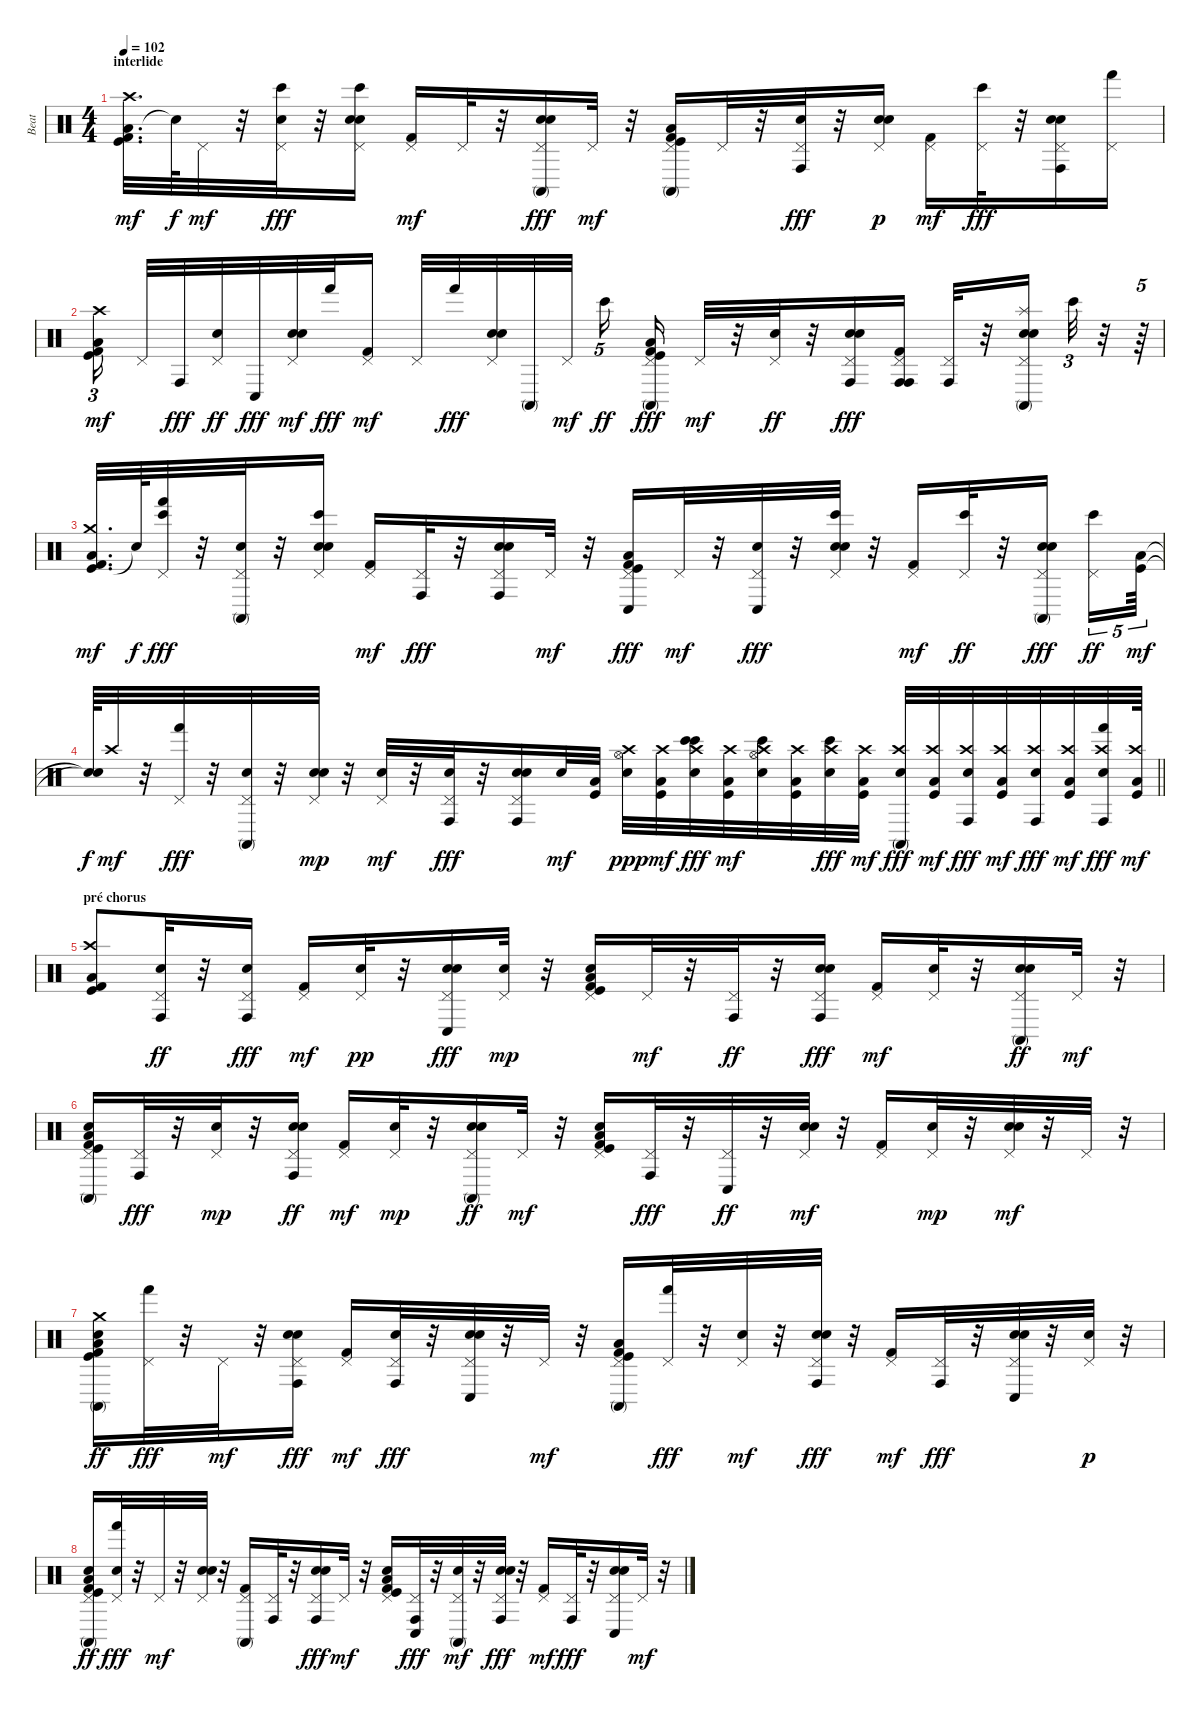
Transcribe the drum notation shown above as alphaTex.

\track ("Beat" "Beat") {instrument percussion}
\staff {score}
\articulation defaults
\ts (4 4)
\section ("" "interlide")
\tempo 102
\clef neutral
\ks c
("Low Tom (hit)" "Kick (hit)" "Kick (hit) 2" "Crash high (hit)").32{d dy mf volume 12} "Snare (hit)"{t}.64{dy f} "Pedal Hi-Hat (hit)".32{dy mf} r.32 ("Pedal Hi-Hat (hit)" "Hand Clap (hit)" "Bongo High (hit)").32{dy fff} r.32 ("Electric Snare (hit)" "Pedal Hi-Hat (hit)" "Hand Clap (hit)" "Bongo High (hit)").16 ("Kick (hit) 2" "Pedal Hi-Hat (hit)").16{dy mf} "Pedal Hi-Hat (hit)".32 r.32 ("Electric Snare (hit)" "Pedal Hi-Hat (hit)" "Hand Clap (hit)" "Conga high (mute)").16{dy fff} "Pedal Hi-Hat (hit)".32{dy mf} r.32 ("Low Tom (hit)" "Kick (hit)" "Kick (hit) 2" "Pedal Hi-Hat (hit)" "Conga high (mute)").16 "Pedal Hi-Hat (hit)".32 r.32 ("Pedal Hi-Hat (hit)" "Hand Clap (hit)" "Conga high (hit)").32{dy fff} r.32 ("Electric Snare (hit)" "Pedal Hi-Hat (hit)" "Hand Clap (hit)").16{dy p} ("Kick (hit) 2" "Pedal Hi-Hat (hit)").16{dy mf} ("Pedal Hi-Hat (hit)" "Bongo High (hit)").32{dy fff} r.32 ("Electric Snare (hit)" "Pedal Hi-Hat (hit)" "Hand Clap (hit)" "Conga high (hit)").16 ("Pedal Hi-Hat (hit)" "Hand (hit)").16 |
("Kick (hit)" "Low Tom (hit)" "Kick (hit) 2" "Crash high (hit)").16{tu (3 2) dy mf beam splitsecondary} "Pedal Hi-Hat (hit)".32 "Conga high (hit)".32{dy fff} ("Pedal Hi-Hat (hit)" "Hand Clap (hit)").32{dy ff} "Conga low (hit)".32{dy fff} ("Electric Snare (hit)" "Pedal Hi-Hat (hit)" "Hand Clap (hit)").32{dy mf} "Hand (hit)".32{dy fff} ("Kick (hit) 2" "Pedal Hi-Hat (hit)").16{dy mf} "Pedal Hi-Hat (hit)".32 "Hand (hit)".32{dy fff} ("Electric Snare (hit)" "Pedal Hi-Hat (hit)" "Hand Clap (hit)").32 "Conga high (mute)".32 "Pedal Hi-Hat (hit)".32{dy mf beam splitsecondary} "Bongo High (hit)".16{tu (5 4) dy ff} ("Low Tom (hit)" "Kick (hit)" "Kick (hit) 2" "Pedal Hi-Hat (hit)" "Conga high (mute)").16{dy fff} "Pedal Hi-Hat (hit)".32{dy mf} r.32 ("Pedal Hi-Hat (hit)" "Hand Clap (hit)").32{dy ff} r.32 ("Electric Snare (hit)" "Pedal Hi-Hat (hit)" "Hand Clap (hit)" "Conga high (hit)").16{dy fff} ("Kick (hit) 2" "Pedal Hi-Hat (hit)" "Conga high (hit)" "Conga high (hit)").16 ("Pedal Hi-Hat (hit)" "Conga high (hit)").32 r.32 ("Electric Snare (hit)" "Splash (hit)" "Pedal Hi-Hat (hit)" "Hand Clap (hit)" "Conga high (mute)").16 "Bongo High (hit)".32{tu (3 2)} r.32 r.64{tu (5 4)} |
("Kick (hit)" "Low Tom (hit)" "Kick (hit) 2" "Crash medium (hit)").32{d dy mf} "Snare (hit)"{t}.64{dy f} ("Pedal Hi-Hat (hit)" "Hand (hit)" "Bongo High (hit)").32{dy fff} r.32 ("Pedal Hi-Hat (hit)" "Hand Clap (hit)" "Conga high (mute)").32 r.32 ("Electric Snare (hit)" "Pedal Hi-Hat (hit)" "Hand Clap (hit)" "Bongo High (hit)").16 ("Kick (hit) 2" "Pedal Hi-Hat (hit)").16{dy mf} ("Pedal Hi-Hat (hit)" "Conga high (hit)").32{dy fff} r.32 ("Electric Snare (hit)" "Pedal Hi-Hat (hit)" "Hand Clap (hit)" "Conga high (hit)").16 "Pedal Hi-Hat (hit)".32{dy mf} r.32 ("Low Tom (hit)" "Kick (hit)" "Kick (hit) 2" "Pedal Hi-Hat (hit)" "Conga low (hit)").16{dy fff} "Pedal Hi-Hat (hit)".32{dy mf} r.32 ("Pedal Hi-Hat (hit)" "Hand Clap (hit)" "Conga low (hit)").32{dy fff} r.32 ("Electric Snare (hit)" "Pedal Hi-Hat (hit)" "Hand Clap (hit)" "Bongo High (hit)").32 r.32 ("Kick (hit) 2" "Pedal Hi-Hat (hit)").16{dy mf} ("Pedal Hi-Hat (hit)" "Bongo High (hit)").32{dy ff} r.32 ("Electric Snare (hit)" "Pedal Hi-Hat (hit)" "Hand Clap (hit)" "Conga high (mute)").16{dy fff beam splitsecondary} ("Pedal Hi-Hat (hit)" "Bongo High (hit)").16{tu (5 4) dy ff} ("Kick (hit)" "Low Tom (hit)").64{tu (5 4) dy mf} |
\barLineRight lightlight
("Snare (hit)"{t} "Snare (hit)"{t}).64{dy f} "Crash high (hit)".32{dy mf} r.32 ("Pedal Hi-Hat (hit)" "Hand (hit)").32{dy fff} r.32 ("Pedal Hi-Hat (hit)" "Hand Clap (hit)" "Conga high (mute)").32 r.32 ("Electric Snare (hit)" "Pedal Hi-Hat (hit)" "Hand Clap (hit)").32{dy mp} r.32 ("Pedal Hi-Hat (hit)" "Hand Clap (hit)").32{dy mf} r.32 ("Pedal Hi-Hat (hit)" "Hand Clap (hit)" "Conga high (hit)").32{dy fff} r.32 ("Electric Snare (hit)" "Pedal Hi-Hat (hit)" "Hand Clap (hit)" "Conga high (hit)").16 "Hand Clap (hit)".32{dy mf} ("Low Tom (hit)" "Kick (hit)").32{volume 14} ("Hi-Hat (open)" "Hand Clap (hit)" "Crash high (hit)").32{dy ppp} ("Crash high (hit)" "Kick (hit)" "Low Tom (hit)").32{dy mf} ("Hand Clap (hit)" "Crash high (hit)" "Bongo High (hit)" "Bongo High (hit)").32{dy fff} ("Crash high (hit)" "Low Tom (hit)" "Kick (hit)").32{dy mf} ("Hi-Hat (open)" "Hand Clap (hit)" "Crash high (hit)" "Bongo High (hit)").32 ("Crash high (hit)" "Kick (hit)" "Low Tom (hit)").32 ("Hand Clap (hit)" "Crash high (hit)" "Bongo High (hit)").32{dy fff} ("Crash high (hit)" "Low Tom (hit)" "Kick (hit)").32{dy mf} ("Hand Clap (hit)" "Crash high (hit)" "Conga high (mute)").32{dy fff} ("Crash high (hit)" "Kick (hit)" "Low Tom (hit)").32{dy mf} ("Hand Clap (hit)" "Crash high (hit)" "Conga high (hit)").32{dy fff} ("Crash high (hit)" "Low Tom (hit)" "Kick (hit)").32{dy mf} ("Hand Clap (hit)" "Crash high (hit)" "Conga high (hit)").32{dy fff} ("Crash high (hit)" "Kick (hit)" "Low Tom (hit)").32{dy mf} ("Hand Clap (hit)" "Crash high (hit)" "Conga high (hit)" "Hand (hit)").32{dy fff} ("Crash high (hit)" "Low Tom (hit)" "Kick (hit)").64{dy mf} |
\section ("" "pré chorus")
("Kick (hit) 2" "Kick (hit)" "Low Tom (hit)" "Crash high (hit)").8{volume 10} ("Pedal Hi-Hat (hit)" "Hand Clap (hit)" "Conga high (hit)").32{dy ff} r.32 ("Electric Snare (hit)" "Pedal Hi-Hat (hit)" "Conga high (hit)").16{dy fff} ("Kick (hit) 2" "Pedal Hi-Hat (hit)").16{dy mf} ("Pedal Hi-Hat (hit)" "Hand Clap (hit)").32{dy pp} r.32 ("Electric Snare (hit)" "Pedal Hi-Hat (hit)" "Hand Clap (hit)" "Conga low (hit)").16{dy fff} ("Pedal Hi-Hat (hit)" "Hand Clap (hit)").32{dy mp} r.32 ("Low Tom (hit)" "Kick (hit)" "Kick (hit) 2" "Pedal Hi-Hat (hit)" "Hand Clap (hit)").16 "Pedal Hi-Hat (hit)".32{dy mf} r.32 ("Pedal Hi-Hat (hit)" "Conga high (hit)").32{dy ff} r.32 ("Electric Snare (hit)" "Pedal Hi-Hat (hit)" "Hand Clap (hit)" "Conga high (hit)").16{dy fff} ("Kick (hit) 2" "Pedal Hi-Hat (hit)").16{dy mf} ("Pedal Hi-Hat (hit)" "Hand Clap (hit)").32 r.32 ("Electric Snare (hit)" "Pedal Hi-Hat (hit)" "Hand Clap (hit)" "Conga high (mute)").16{dy ff} "Pedal Hi-Hat (hit)".32{dy mf} r.32 |
("Low Tom (hit)" "Kick (hit)" "Kick (hit) 2" "Pedal Hi-Hat (hit)" "Hand Clap (hit)" "Conga high (mute)").16 ("Pedal Hi-Hat (hit)" "Conga high (hit)").32{dy fff} r.32 ("Pedal Hi-Hat (hit)" "Hand Clap (hit)").32{dy mp} r.32 ("Electric Snare (hit)" "Pedal Hi-Hat (hit)" "Hand Clap (hit)" "Conga high (hit)").16{dy ff} ("Kick (hit) 2" "Pedal Hi-Hat (hit)").16{dy mf} ("Pedal Hi-Hat (hit)" "Hand Clap (hit)").32{dy mp} r.32 ("Electric Snare (hit)" "Pedal Hi-Hat (hit)" "Hand Clap (hit)" "Conga high (mute)").16{dy ff} "Pedal Hi-Hat (hit)".32{dy mf} r.32 ("Low Tom (hit)" "Kick (hit)" "Kick (hit) 2" "Pedal Hi-Hat (hit)" "Hand Clap (hit)").16 ("Pedal Hi-Hat (hit)" "Conga high (hit)").32{dy fff} r.32 ("Pedal Hi-Hat (hit)" "Conga low (hit)").32{dy ff} r.32 ("Electric Snare (hit)" "Pedal Hi-Hat (hit)" "Hand Clap (hit)").32{dy mf} r.32 ("Kick (hit) 2" "Pedal Hi-Hat (hit)").16 ("Pedal Hi-Hat (hit)" "Hand Clap (hit)").32{dy mp} r.32 ("Electric Snare (hit)" "Pedal Hi-Hat (hit)" "Hand Clap (hit)").32{dy mf} r.32 "Pedal Hi-Hat (hit)".32 r.32 |
("Low Tom (hit)" "Kick (hit)" "Kick (hit) 2" "Crash medium (hit)" "Hand Clap (hit)" "Conga high (mute)").16{dy ff} ("Pedal Hi-Hat (hit)" "Hand (hit)").32{dy fff} r.32 "Pedal Hi-Hat (hit)".32{dy mf} r.32 ("Electric Snare (hit)" "Pedal Hi-Hat (hit)" "Hand Clap (hit)" "Conga high (hit)").16{dy fff} ("Kick (hit) 2" "Pedal Hi-Hat (hit)").16{dy mf} ("Pedal Hi-Hat (hit)" "Hand Clap (hit)" "Conga high (hit)").32{dy fff} r.32 ("Electric Snare (hit)" "Pedal Hi-Hat (hit)" "Hand Clap (hit)" "Conga low (hit)").32 r.32 "Pedal Hi-Hat (hit)".32{dy mf} r.32 ("Low Tom (hit)" "Kick (hit)" "Kick (hit) 2" "Pedal Hi-Hat (hit)" "Conga high (mute)").16 ("Pedal Hi-Hat (hit)" "Hand (hit)").32{dy fff} r.32 ("Pedal Hi-Hat (hit)" "Hand Clap (hit)").32{dy mf} r.32 ("Electric Snare (hit)" "Pedal Hi-Hat (hit)" "Hand Clap (hit)" "Conga high (hit)").32{dy fff} r.32 ("Kick (hit) 2" "Pedal Hi-Hat (hit)").16{dy mf} ("Pedal Hi-Hat (hit)" "Conga high (hit)").32{dy fff} r.32 ("Electric Snare (hit)" "Pedal Hi-Hat (hit)" "Hand Clap (hit)" "Conga low (hit)").32 r.32 ("Pedal Hi-Hat (hit)" "Hand Clap (hit)").32{dy p} r.32 |
("Low Tom (hit)" "Kick (hit)" "Kick (hit) 2" "Pedal Hi-Hat (hit)" "Hand Clap (hit)" "Conga high (mute)").16{dy ff} ("Pedal Hi-Hat (hit)" "Hand Clap (hit)" "Hand (hit)").32{dy fff} r.32 "Pedal Hi-Hat (hit)".32{dy mf} r.32 ("Electric Snare (hit)" "Pedal Hi-Hat (hit)" "Hand Clap (hit)").32 r.32 ("Kick (hit) 2" "Pedal Hi-Hat (hit)" "Conga high (mute)").16 ("Pedal Hi-Hat (hit)" "Conga high (hit)").32 r.32 ("Electric Snare (hit)" "Pedal Hi-Hat (hit)" "Hand Clap (hit)" "Conga high (hit)").16{dy fff} "Pedal Hi-Hat (hit)".32{dy mf} r.32 ("Low Tom (hit)" "Kick (hit)" "Kick (hit) 2" "Pedal Hi-Hat (hit)" "Hand Clap (hit)").16 ("Pedal Hi-Hat (hit)" "Conga low (hit)" "Conga high (hit)").32{dy fff} r.32 ("Pedal Hi-Hat (hit)" "Hand Clap (hit)" "Conga high (mute)").32{dy mf} r.32 ("Electric Snare (hit)" "Pedal Hi-Hat (hit)" "Hand Clap (hit)" "Conga high (hit)").32{dy fff} r.32 ("Kick (hit) 2" "Pedal Hi-Hat (hit)").16{dy mf} ("Pedal Hi-Hat (hit)" "Conga high (hit)").32{dy fff} r.32 ("Electric Snare (hit)" "Pedal Hi-Hat (hit)" "Hand Clap (hit)" "Conga low (hit)").16 "Pedal Hi-Hat (hit)".32{dy mf} r.32
